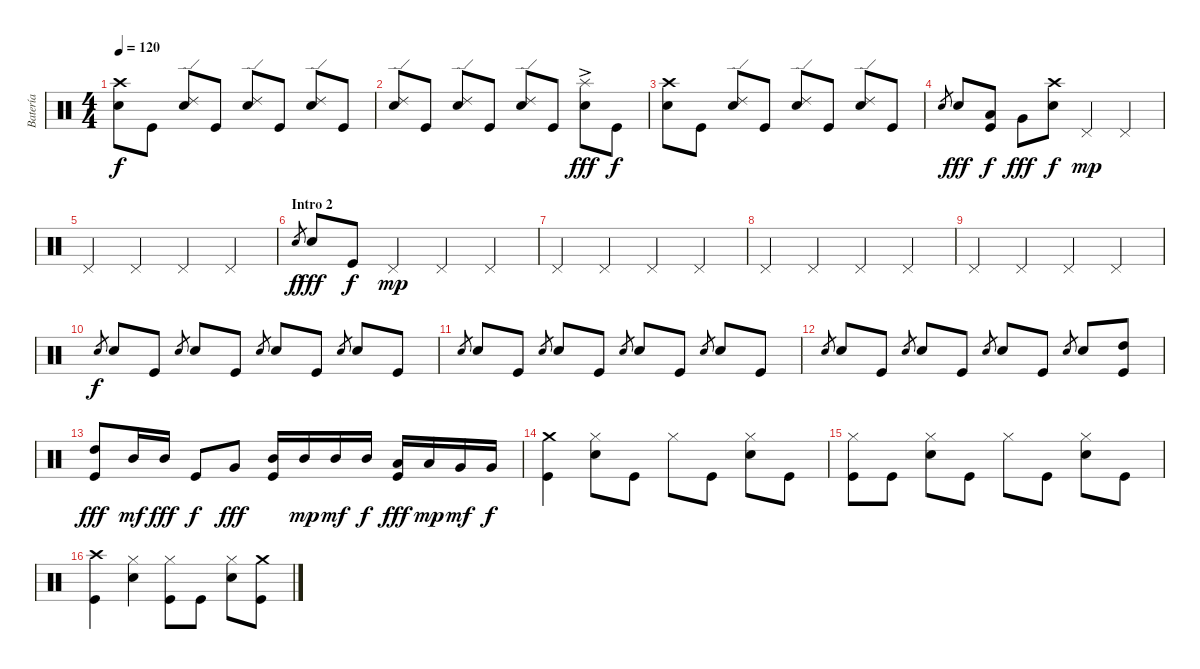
\track ("Batería" "Batería") {instrument percussion}
\staff {score}
\articulation defaults
\ts (4 4)
\tempo 120
\clef neutral
\ks c
("Electric Snare (hit)" "Crash high (hit)").8{dy f} "Kick (hit)".8 ("Electric Snare (hit)" "Ride (edge) 2").8 "Kick (hit)".8 ("Electric Snare (hit)" "Ride (edge) 2").8 "Kick (hit)".8 ("Electric Snare (hit)" "Ride (edge) 2").8 "Kick (hit)".8 |
("Electric Snare (hit)" "Ride (edge) 2").8 "Kick (hit)".8 ("Electric Snare (hit)" "Ride (edge) 2").8 "Kick (hit)".8 ("Electric Snare (hit)" "Ride (edge) 2").8 "Kick (hit)".8 ("Electric Snare (hit)" "Splash (hit)"{ac}).8{dy fff} "Kick (hit)".8{dy f} |
("Electric Snare (hit)" "Crash high (hit)").8 "Kick (hit)".8 ("Electric Snare (hit)" "Ride (edge) 2").8 "Kick (hit)".8 ("Electric Snare (hit)" "Ride (edge) 2").8 "Kick (hit)".8 ("Electric Snare (hit)" "Ride (edge) 2").8 "Kick (hit)".8 |
"Electric Snare (hit)".8{gr} "Electric Snare (hit)".8{dy fff} ("Kick (hit)" "Low Tom (hit)").8{dy f} "Very Low Tom (hit)".8{dy fff} ("Electric Snare (hit)" "Crash high (hit)").8{dy f} "Pedal Hi-Hat (hit)".4{dy mp} "Pedal Hi-Hat (hit)".4 |
"Pedal Hi-Hat (hit)".4 "Pedal Hi-Hat (hit)".4 "Pedal Hi-Hat (hit)".4 "Pedal Hi-Hat (hit)".4 |
\section ("" "Intro 2")
"Electric Snare (hit)".8{gr dy f} "Electric Snare (hit)".8{dy fff} "Kick (hit)".8{dy f} "Pedal Hi-Hat (hit)".4{dy mp} "Pedal Hi-Hat (hit)".4 "Pedal Hi-Hat (hit)".4 |
"Pedal Hi-Hat (hit)".4 "Pedal Hi-Hat (hit)".4 "Pedal Hi-Hat (hit)".4 "Pedal Hi-Hat (hit)".4 |
"Pedal Hi-Hat (hit)".4 "Pedal Hi-Hat (hit)".4 "Pedal Hi-Hat (hit)".4 "Pedal Hi-Hat (hit)".4 |
"Pedal Hi-Hat (hit)".4 "Pedal Hi-Hat (hit)".4 "Pedal Hi-Hat (hit)".4 "Pedal Hi-Hat (hit)".4 |
"Electric Snare (hit)".8{gr dy f} "Electric Snare (hit)".8 "Kick (hit)".8 "Electric Snare (hit)".8{gr} "Electric Snare (hit)".8 "Kick (hit)".8 "Electric Snare (hit)".8{gr} "Electric Snare (hit)".8 "Kick (hit)".8 "Electric Snare (hit)".8{gr} "Electric Snare (hit)".8 "Kick (hit)".8 |
"Electric Snare (hit)".8{gr} "Electric Snare (hit)".8 "Kick (hit)".8 "Electric Snare (hit)".8{gr} "Electric Snare (hit)".8 "Kick (hit)".8 "Electric Snare (hit)".8{gr} "Electric Snare (hit)".8 "Kick (hit)".8 "Electric Snare (hit)".8{gr} "Electric Snare (hit)".8 "Kick (hit)".8 |
"Electric Snare (hit)".8{gr} "Electric Snare (hit)".8 "Kick (hit)".8 "Electric Snare (hit)".8{gr} "Electric Snare (hit)".8 "Kick (hit)".8 "Electric Snare (hit)".8{gr} "Electric Snare (hit)".8 "Kick (hit)".8 "Electric Snare (hit)".8{gr} "Electric Snare (hit)".8 ("Kick (hit)" "High Tom (hit)").8 |
("Kick (hit)" "High Tom (hit)").8{dy fff} "Mid Tom (hit)".16{dy mf} "Mid Tom (hit)".16{dy fff} "Kick (hit)".8{dy f} "Very Low Tom (hit)".8{dy fff} ("Kick (hit)" "Mid Tom (hit)").16 "Mid Tom (hit)".16{dy mp} "Mid Tom (hit)".16{dy mf} "Mid Tom (hit)".16{dy f} ("Kick (hit)" "Low Tom (hit)").16{dy fff} "Low Tom (hit)".16{dy mp} "Very Low Tom (hit)".16{dy mf} "Very Low Tom (hit)".16{dy f} |
("Kick (hit)" "Crash medium (hit)").4 ("Electric Snare (hit)" "Hi-Hat (closed)").8 "Kick (hit)".8 "Hi-Hat (closed)".8 "Kick (hit)".8 ("Electric Snare (hit)" "Hi-Hat (closed)").8 "Kick (hit)".8 |
("Kick (hit)" "Hi-Hat (closed)").8 "Kick (hit)".8 ("Electric Snare (hit)" "Hi-Hat (closed)").8 "Kick (hit)".8 "Hi-Hat (closed)".8 "Kick (hit)".8 ("Electric Snare (hit)" "Hi-Hat (closed)").8 "Kick (hit)".8 |
("Kick (hit)" "Crash high (hit)").4 ("Electric Snare (hit)" "Hi-Hat (closed)").4 ("Kick (hit)" "Hi-Hat (closed)").8 "Kick (hit)".8 ("Electric Snare (hit)" "Hi-Hat (closed)").8 ("Kick (hit)" "Crash medium (hit)").8
